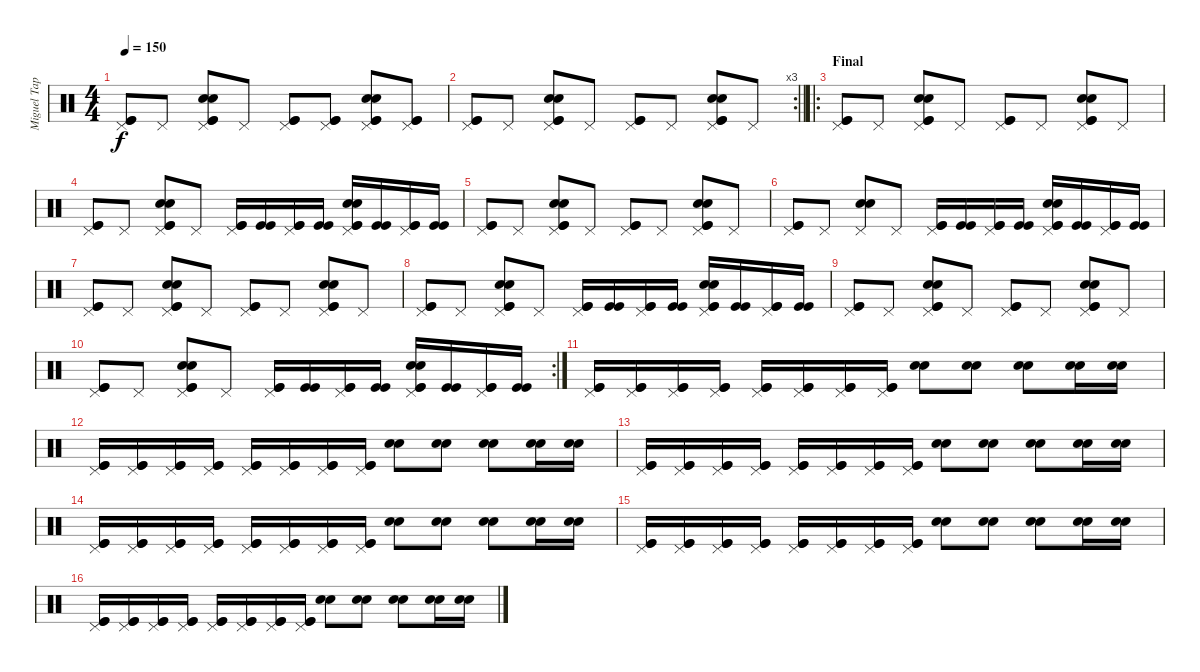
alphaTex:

\track ("Miguel Tapia" "Miguel Tap") {instrument percussion}
\staff {score}
\articulation defaults
\ts (4 4)
\tempo 150
\clef neutral
\ks c
("Pedal Hi-Hat (hit)" "Kick (hit)" "Kick (hit)").8{dy f} "Pedal Hi-Hat (hit)".8 ("Pedal Hi-Hat (hit)" "Snare (hit) 2" "Snare (hit) 2" "Kick (hit)" "Kick (hit)").8 "Pedal Hi-Hat (hit)".8 ("Pedal Hi-Hat (hit)" "Kick (hit)" "Kick (hit)").8 ("Pedal Hi-Hat (hit)" "Kick (hit)" "Kick (hit)").8 ("Pedal Hi-Hat (hit)" "Snare (hit) 2" "Snare (hit) 2" "Kick (hit)" "Kick (hit)").8 ("Pedal Hi-Hat (hit)" "Kick (hit)" "Kick (hit)").8 |
\rc 3
\barLineRight lightlight
("Pedal Hi-Hat (hit)" "Kick (hit)" "Kick (hit)").8 "Pedal Hi-Hat (hit)".8 ("Pedal Hi-Hat (hit)" "Snare (hit) 2" "Snare (hit) 2" "Kick (hit)" "Kick (hit)").8 "Pedal Hi-Hat (hit)".8 ("Pedal Hi-Hat (hit)" "Kick (hit)" "Kick (hit)").8 "Pedal Hi-Hat (hit)".8 ("Pedal Hi-Hat (hit)" "Snare (hit) 2" "Snare (hit) 2" "Kick (hit)" "Kick (hit)").8 "Pedal Hi-Hat (hit)".8 |
\ro
\section ("" "Final")
("Pedal Hi-Hat (hit)" "Kick (hit)" "Kick (hit)").8 "Pedal Hi-Hat (hit)".8 ("Pedal Hi-Hat (hit)" "Snare (hit) 2" "Snare (hit) 2" "Kick (hit)" "Kick (hit)").8 "Pedal Hi-Hat (hit)".8 ("Pedal Hi-Hat (hit)" "Kick (hit)" "Kick (hit)").8 "Pedal Hi-Hat (hit)".8 ("Pedal Hi-Hat (hit)" "Snare (hit) 2" "Snare (hit) 2" "Kick (hit)" "Kick (hit)").8 "Pedal Hi-Hat (hit)".8 |
("Pedal Hi-Hat (hit)" "Kick (hit)" "Kick (hit)").8 "Pedal Hi-Hat (hit)".8 ("Pedal Hi-Hat (hit)" "Snare (hit) 2" "Snare (hit) 2" "Kick (hit)" "Kick (hit)").8 "Pedal Hi-Hat (hit)".8 ("Pedal Hi-Hat (hit)" "Kick (hit)" "Kick (hit)").16 ("Kick (hit)" "Kick (hit)").16 ("Pedal Hi-Hat (hit)" "Kick (hit)" "Kick (hit)").16 ("Kick (hit)" "Kick (hit)").16 ("Pedal Hi-Hat (hit)" "Kick (hit)" "Kick (hit)" "Snare (hit) 2" "Snare (hit) 2").16 ("Kick (hit)" "Kick (hit)").16 ("Pedal Hi-Hat (hit)" "Kick (hit)" "Kick (hit)").16 ("Kick (hit)" "Kick (hit)").16 |
("Pedal Hi-Hat (hit)" "Kick (hit)" "Kick (hit)").8 "Pedal Hi-Hat (hit)".8 ("Pedal Hi-Hat (hit)" "Snare (hit) 2" "Snare (hit) 2" "Kick (hit)" "Kick (hit)").8 "Pedal Hi-Hat (hit)".8 ("Pedal Hi-Hat (hit)" "Kick (hit)" "Kick (hit)").8 "Pedal Hi-Hat (hit)".8 ("Pedal Hi-Hat (hit)" "Snare (hit) 2" "Snare (hit) 2" "Kick (hit)" "Kick (hit)").8 "Pedal Hi-Hat (hit)".8 |
("Pedal Hi-Hat (hit)" "Kick (hit)" "Kick (hit)").8 "Pedal Hi-Hat (hit)".8 ("Pedal Hi-Hat (hit)" "Snare (hit) 2" "Snare (hit) 2").8 "Pedal Hi-Hat (hit)".8 ("Pedal Hi-Hat (hit)" "Kick (hit)" "Kick (hit)").16 ("Kick (hit)" "Kick (hit)").16 ("Pedal Hi-Hat (hit)" "Kick (hit)" "Kick (hit)").16 ("Kick (hit)" "Kick (hit)").16 ("Pedal Hi-Hat (hit)" "Kick (hit)" "Kick (hit)" "Snare (hit) 2" "Snare (hit) 2").16 ("Kick (hit)" "Kick (hit)").16 ("Pedal Hi-Hat (hit)" "Kick (hit)" "Kick (hit)").16 ("Kick (hit)" "Kick (hit)").16 |
("Pedal Hi-Hat (hit)" "Kick (hit)" "Kick (hit)").8 "Pedal Hi-Hat (hit)".8 ("Pedal Hi-Hat (hit)" "Snare (hit) 2" "Snare (hit) 2" "Kick (hit)" "Kick (hit)").8 "Pedal Hi-Hat (hit)".8 ("Pedal Hi-Hat (hit)" "Kick (hit)" "Kick (hit)").8 "Pedal Hi-Hat (hit)".8 ("Pedal Hi-Hat (hit)" "Snare (hit) 2" "Snare (hit) 2" "Kick (hit)" "Kick (hit)").8 "Pedal Hi-Hat (hit)".8 |
("Pedal Hi-Hat (hit)" "Kick (hit)" "Kick (hit)").8 "Pedal Hi-Hat (hit)".8 ("Pedal Hi-Hat (hit)" "Snare (hit) 2" "Snare (hit) 2" "Kick (hit)" "Kick (hit)").8 "Pedal Hi-Hat (hit)".8 ("Pedal Hi-Hat (hit)" "Kick (hit)" "Kick (hit)").16 ("Kick (hit)" "Kick (hit)").16 ("Pedal Hi-Hat (hit)" "Kick (hit)" "Kick (hit)").16 ("Kick (hit)" "Kick (hit)").16 ("Pedal Hi-Hat (hit)" "Kick (hit)" "Kick (hit)" "Snare (hit) 2" "Snare (hit) 2").16 ("Kick (hit)" "Kick (hit)").16 ("Pedal Hi-Hat (hit)" "Kick (hit)" "Kick (hit)").16 ("Kick (hit)" "Kick (hit)").16 |
("Pedal Hi-Hat (hit)" "Kick (hit)" "Kick (hit)").8 "Pedal Hi-Hat (hit)".8 ("Pedal Hi-Hat (hit)" "Snare (hit) 2" "Snare (hit) 2" "Kick (hit)" "Kick (hit)").8 "Pedal Hi-Hat (hit)".8 ("Pedal Hi-Hat (hit)" "Kick (hit)" "Kick (hit)").8 "Pedal Hi-Hat (hit)".8 ("Pedal Hi-Hat (hit)" "Snare (hit) 2" "Snare (hit) 2" "Kick (hit)" "Kick (hit)").8 "Pedal Hi-Hat (hit)".8 |
\rc 2
("Pedal Hi-Hat (hit)" "Kick (hit)" "Kick (hit)").8 "Pedal Hi-Hat (hit)".8 ("Pedal Hi-Hat (hit)" "Snare (hit) 2" "Snare (hit) 2" "Kick (hit)" "Kick (hit)").8 "Pedal Hi-Hat (hit)".8 ("Pedal Hi-Hat (hit)" "Kick (hit)" "Kick (hit)").16 ("Kick (hit)" "Kick (hit)").16 ("Pedal Hi-Hat (hit)" "Kick (hit)" "Kick (hit)").16 ("Kick (hit)" "Kick (hit)").16 ("Pedal Hi-Hat (hit)" "Kick (hit)" "Kick (hit)" "Snare (hit) 2" "Snare (hit) 2").16 ("Kick (hit)" "Kick (hit)").16 ("Pedal Hi-Hat (hit)" "Kick (hit)" "Kick (hit)").16 ("Kick (hit)" "Kick (hit)").16 |
("Pedal Hi-Hat (hit)" "Kick (hit)" "Kick (hit)").16 ("Pedal Hi-Hat (hit)" "Kick (hit)" "Kick (hit)").16 ("Pedal Hi-Hat (hit)" "Kick (hit)" "Kick (hit)").16 ("Pedal Hi-Hat (hit)" "Kick (hit)" "Kick (hit)").16 ("Pedal Hi-Hat (hit)" "Kick (hit)" "Kick (hit)").16 ("Pedal Hi-Hat (hit)" "Kick (hit)" "Kick (hit)").16 ("Pedal Hi-Hat (hit)" "Kick (hit)" "Kick (hit)").16 ("Pedal Hi-Hat (hit)" "Kick (hit)" "Kick (hit)").16 ("Snare (hit) 2" "Snare (hit) 2").8 ("Snare (hit) 2" "Snare (hit) 2").8 ("Snare (hit) 2" "Snare (hit) 2").8 ("Snare (hit) 2" "Snare (hit) 2").16 ("Snare (hit) 2" "Snare (hit) 2").16 |
("Pedal Hi-Hat (hit)" "Kick (hit)" "Kick (hit)").16 ("Pedal Hi-Hat (hit)" "Kick (hit)" "Kick (hit)").16 ("Pedal Hi-Hat (hit)" "Kick (hit)" "Kick (hit)").16 ("Pedal Hi-Hat (hit)" "Kick (hit)" "Kick (hit)").16 ("Pedal Hi-Hat (hit)" "Kick (hit)" "Kick (hit)").16 ("Pedal Hi-Hat (hit)" "Kick (hit)" "Kick (hit)").16 ("Pedal Hi-Hat (hit)" "Kick (hit)" "Kick (hit)").16 ("Pedal Hi-Hat (hit)" "Kick (hit)" "Kick (hit)").16 ("Snare (hit) 2" "Snare (hit) 2").8 ("Snare (hit) 2" "Snare (hit) 2").8 ("Snare (hit) 2" "Snare (hit) 2").8 ("Snare (hit) 2" "Snare (hit) 2").16 ("Snare (hit) 2" "Snare (hit) 2").16 |
("Pedal Hi-Hat (hit)" "Kick (hit)" "Kick (hit)").16{volume 13} ("Pedal Hi-Hat (hit)" "Kick (hit)" "Kick (hit)").16 ("Pedal Hi-Hat (hit)" "Kick (hit)" "Kick (hit)").16 ("Pedal Hi-Hat (hit)" "Kick (hit)" "Kick (hit)").16 ("Pedal Hi-Hat (hit)" "Kick (hit)" "Kick (hit)").16 ("Pedal Hi-Hat (hit)" "Kick (hit)" "Kick (hit)").16 ("Pedal Hi-Hat (hit)" "Kick (hit)" "Kick (hit)").16 ("Pedal Hi-Hat (hit)" "Kick (hit)" "Kick (hit)").16 ("Snare (hit) 2" "Snare (hit) 2").8 ("Snare (hit) 2" "Snare (hit) 2").8 ("Snare (hit) 2" "Snare (hit) 2").8 ("Snare (hit) 2" "Snare (hit) 2").16 ("Snare (hit) 2" "Snare (hit) 2").16 |
("Pedal Hi-Hat (hit)" "Kick (hit)" "Kick (hit)").16{volume 11} ("Pedal Hi-Hat (hit)" "Kick (hit)" "Kick (hit)").16 ("Pedal Hi-Hat (hit)" "Kick (hit)" "Kick (hit)").16 ("Pedal Hi-Hat (hit)" "Kick (hit)" "Kick (hit)").16 ("Pedal Hi-Hat (hit)" "Kick (hit)" "Kick (hit)").16 ("Pedal Hi-Hat (hit)" "Kick (hit)" "Kick (hit)").16 ("Pedal Hi-Hat (hit)" "Kick (hit)" "Kick (hit)").16 ("Pedal Hi-Hat (hit)" "Kick (hit)" "Kick (hit)").16 ("Snare (hit) 2" "Snare (hit) 2").8 ("Snare (hit) 2" "Snare (hit) 2").8 ("Snare (hit) 2" "Snare (hit) 2").8 ("Snare (hit) 2" "Snare (hit) 2").16 ("Snare (hit) 2" "Snare (hit) 2").16 |
("Pedal Hi-Hat (hit)" "Kick (hit)" "Kick (hit)").16{volume 10} ("Pedal Hi-Hat (hit)" "Kick (hit)" "Kick (hit)").16 ("Pedal Hi-Hat (hit)" "Kick (hit)" "Kick (hit)").16 ("Pedal Hi-Hat (hit)" "Kick (hit)" "Kick (hit)").16 ("Pedal Hi-Hat (hit)" "Kick (hit)" "Kick (hit)").16 ("Pedal Hi-Hat (hit)" "Kick (hit)" "Kick (hit)").16 ("Pedal Hi-Hat (hit)" "Kick (hit)" "Kick (hit)").16 ("Pedal Hi-Hat (hit)" "Kick (hit)" "Kick (hit)").16 ("Snare (hit) 2" "Snare (hit) 2").8 ("Snare (hit) 2" "Snare (hit) 2").8 ("Snare (hit) 2" "Snare (hit) 2").8 ("Snare (hit) 2" "Snare (hit) 2").16 ("Snare (hit) 2" "Snare (hit) 2").16 |
("Pedal Hi-Hat (hit)" "Kick (hit)" "Kick (hit)").16{volume 7} ("Pedal Hi-Hat (hit)" "Kick (hit)" "Kick (hit)").16 ("Pedal Hi-Hat (hit)" "Kick (hit)" "Kick (hit)").16 ("Pedal Hi-Hat (hit)" "Kick (hit)" "Kick (hit)").16 ("Pedal Hi-Hat (hit)" "Kick (hit)" "Kick (hit)").16 ("Pedal Hi-Hat (hit)" "Kick (hit)" "Kick (hit)").16 ("Pedal Hi-Hat (hit)" "Kick (hit)" "Kick (hit)").16{volume 6} ("Pedal Hi-Hat (hit)" "Kick (hit)" "Kick (hit)").16 ("Snare (hit) 2" "Snare (hit) 2").8 ("Snare (hit) 2" "Snare (hit) 2").8{volume 4} ("Snare (hit) 2" "Snare (hit) 2").8 ("Snare (hit) 2" "Snare (hit) 2").16{volume 3} ("Snare (hit) 2" "Snare (hit) 2").16
